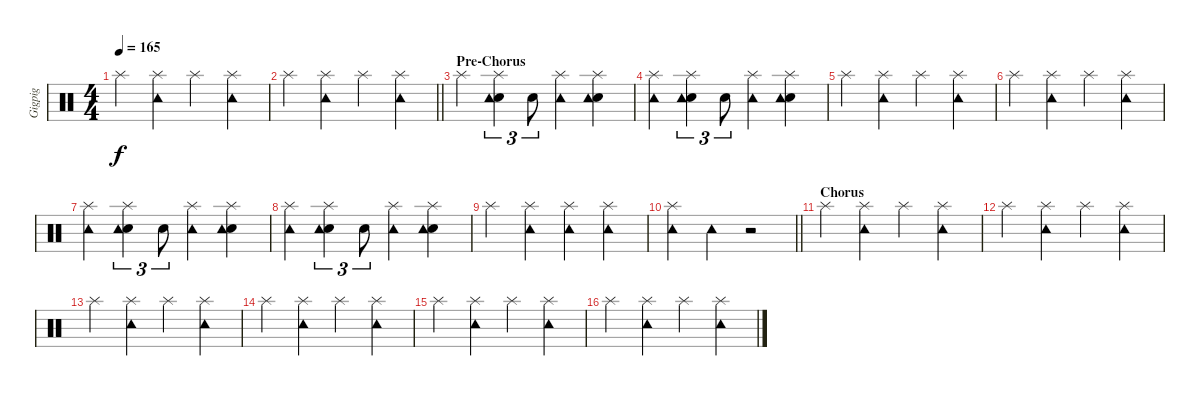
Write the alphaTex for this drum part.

\track ("Gigpig" "Gigpig") {instrument percussion}
\staff {score}
\articulation defaults
\ts (4 4)
\tempo 165
\clef neutral
\ks c "Splash (hit)".4{dy f}
("Splash (hit)" "Tambourine (hit)").4 "Splash (hit)".4 ("Splash (hit)" "Tambourine (hit)").4 |
\barLineRight lightlight "Splash (hit)".4
("Splash (hit)" "Tambourine (hit)").4 "Splash (hit)".4 ("Splash (hit)" "Tambourine (hit)").4 |
\section ("" "Pre-Chorus")
"Splash (hit)".4 ("Splash (hit)" "Hand Clap (hit)" "Tambourine (hit)").4{tu (3 2)} "Hand Clap (hit)".8{tu (3 2)} ("Splash (hit)" "Tambourine (hit)").4 ("Splash (hit)" "Hand Clap (hit)" "Tambourine (hit)").4 |
("Splash (hit)" "Tambourine (hit)").4 ("Splash (hit)" "Hand Clap (hit)" "Tambourine (hit)").4{tu (3 2)} "Hand Clap (hit)".8{tu (3 2)} ("Splash (hit)" "Tambourine (hit)").4 ("Splash (hit)" "Hand Clap (hit)" "Tambourine (hit)").4 |
"Splash (hit)".4 ("Splash (hit)" "Tambourine (hit)").4 "Splash (hit)".4 ("Splash (hit)" "Tambourine (hit)").4 |
"Splash (hit)".4 ("Splash (hit)" "Tambourine (hit)").4 "Splash (hit)".4 ("Splash (hit)" "Tambourine (hit)").4 |
("Splash (hit)" "Tambourine (hit)").4 ("Splash (hit)" "Hand Clap (hit)" "Tambourine (hit)").4{tu (3 2)} "Hand Clap (hit)".8{tu (3 2)} ("Splash (hit)" "Tambourine (hit)").4 ("Splash (hit)" "Hand Clap (hit)" "Tambourine (hit)").4 |
("Splash (hit)" "Tambourine (hit)").4 ("Splash (hit)" "Hand Clap (hit)" "Tambourine (hit)").4{tu (3 2)} "Hand Clap (hit)".8{tu (3 2)} ("Splash (hit)" "Tambourine (hit)").4 ("Splash (hit)" "Hand Clap (hit)" "Tambourine (hit)").4 |
"Splash (hit)".4 ("Splash (hit)" "Tambourine (hit)").4 ("Splash (hit)" "Tambourine (hit)").4 ("Splash (hit)" "Tambourine (hit)").4 |
\barLineRight lightlight
("Splash (hit)" "Tambourine (hit)").4 "Tambourine (hit)".4 r.2 |
\section ("" "Chorus")
"Splash (hit)".4 ("Splash (hit)" "Tambourine (hit)").4 "Splash (hit)".4 ("Splash (hit)" "Tambourine (hit)").4 |
"Splash (hit)".4 ("Splash (hit)" "Tambourine (hit)").4 "Splash (hit)".4 ("Splash (hit)" "Tambourine (hit)").4 |
"Splash (hit)".4 ("Splash (hit)" "Tambourine (hit)").4 "Splash (hit)".4 ("Splash (hit)" "Tambourine (hit)").4 |
"Splash (hit)".4 ("Splash (hit)" "Tambourine (hit)").4 "Splash (hit)".4 ("Splash (hit)" "Tambourine (hit)").4 |
"Splash (hit)".4 ("Splash (hit)" "Tambourine (hit)").4 "Splash (hit)".4 ("Splash (hit)" "Tambourine (hit)").4 |
"Splash (hit)".4 ("Splash (hit)" "Tambourine (hit)").4 "Splash (hit)".4 ("Splash (hit)" "Tambourine (hit)").4
